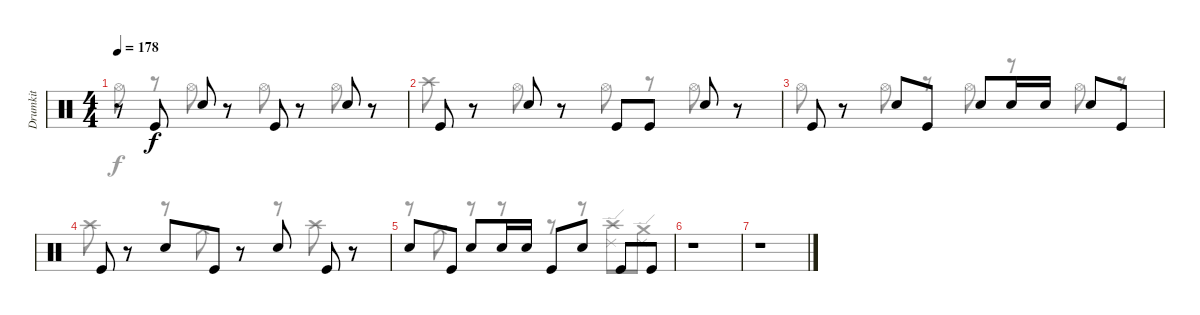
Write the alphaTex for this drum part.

\track ("Drumkit" "Drumkit") {instrument percussion}
\staff {score}
\articulation defaults
\voice
\ts (4 4)
\tempo 178
\clef neutral
\ks c
r.8{dy f} "Kick (hit)".8 "Snare (hit) 2".8 r.8 "Kick (hit)".8 r.8 "Snare (hit) 2".8 r.8 |
"Kick (hit)".8 r.8 "Snare (hit) 2".8 r.8 "Kick (hit)".8 "Kick (hit)".8 "Snare (hit) 2".8 r.8 |
"Kick (hit)".8 r.8 "Snare (hit) 2".8 "Kick (hit)".8 "Snare (hit) 2".8 "Snare (hit) 2".16 "Snare (hit) 2".16 "Snare (hit) 2".8 "Kick (hit)".8 |
\section ("" "")
"Kick (hit)".8 r.8 "Snare (hit) 2".8 "Kick (hit)".8 r.8 "Snare (hit) 2".8 "Kick (hit)".8 r.8 |
"Snare (hit) 2".8 "Kick (hit)".8 "Snare (hit) 2".8 "Snare (hit) 2".16 "Snare (hit) 2".16 "Kick (hit)".8 "Snare (hit) 2".8 "Kick (hit)".8 "Kick (hit)".8 |
r.1 |
r.1 |
|
\voice
\clef neutral
\ottava regular
\simile none
\ks c "Hi-Hat (open)".8{dy f}
r.8 "Hi-Hat (open)".8 r.8 "Hi-Hat (open)".8 r.8 "Hi-Hat (open)".8 r.8 |
"Crash high (hit)".8 r.8 "Hi-Hat (open)".8 r.8 "Hi-Hat (open)".8 r.8 "Hi-Hat (open)".8 r.8 |
"Hi-Hat (open)".8 r.8 "Hi-Hat (open)".8 r.8 "Hi-Hat (open)".8 r.8 "Hi-Hat (open)".8 r.8 |
"Crash high (hit)".8 r.8 r.8 "Crash medium (hit)".8 r.8 r.8 "Crash high (hit)".8 r.8 |
r.8 "Crash medium (hit)".8 r.8 r.8 r.8 r.8 ("Ride (edge) 2" "Crash high (hit)").8 ("Ride (edge) 2" "Crash medium (hit)").8 |
|
|
|
